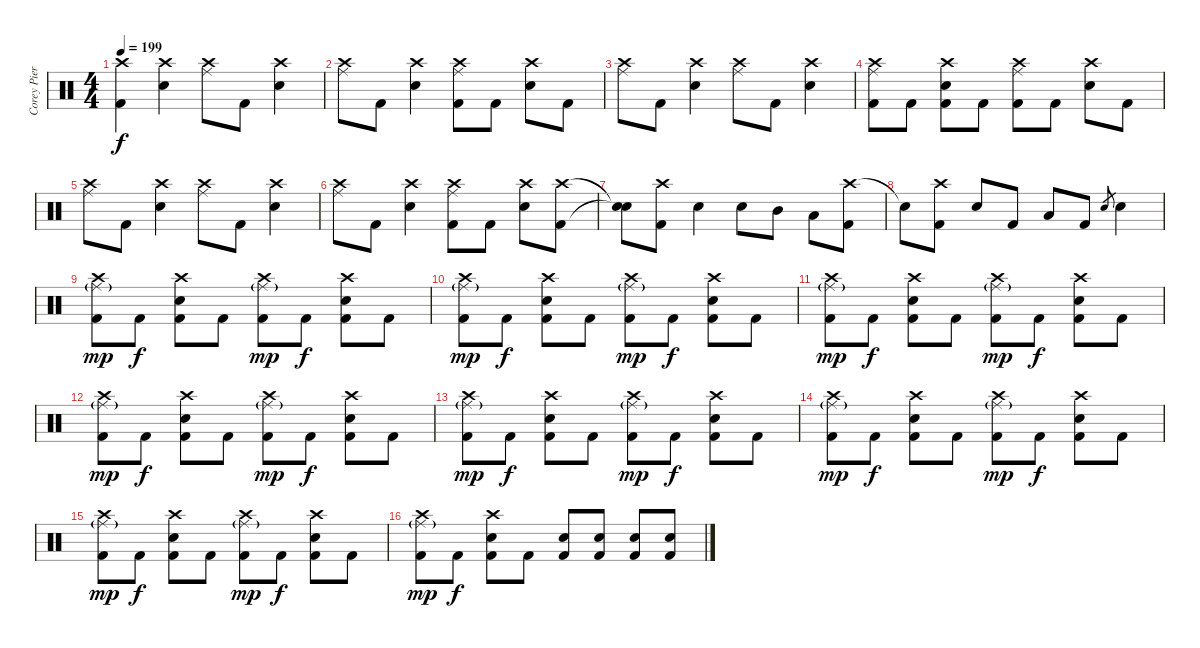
\track ("Corey Pierce (Drums)" "Corey Pier") {instrument percussion}
\staff {score}
\articulation defaults
\ts (4 4)
\tempo 199
\clef neutral
\ks c
("Crash high (hit)" "Kick (hit) 2").4{dy f} ("Crash high (hit)" "Snare (hit) 2").4 ("Ride (middle)" "Crash high (hit)").8 "Kick (hit) 2".8 ("Crash high (hit)" "Snare (hit) 2").4 |
("Ride (middle)" "Crash high (hit)").8 "Kick (hit) 2".8 ("Crash high (hit)" "Snare (hit) 2").4 ("Ride (middle)" "Crash high (hit)" "Kick (hit) 2").8 "Kick (hit) 2".8 ("Crash high (hit)" "Snare (hit) 2").8 "Kick (hit) 2".8 |
("Ride (middle)" "Crash high (hit)").8 "Kick (hit) 2".8 ("Crash high (hit)" "Snare (hit) 2").4 ("Ride (middle)" "Crash high (hit)").8 "Kick (hit) 2".8 ("Crash high (hit)" "Snare (hit) 2").4 |
("Ride (middle)" "Crash high (hit)" "Kick (hit) 2").8 "Kick (hit) 2".8 ("Crash high (hit)" "Snare (hit) 2" "Kick (hit) 2").8 "Kick (hit) 2".8 ("Ride (middle)" "Crash high (hit)" "Kick (hit) 2").8 "Kick (hit) 2".8 ("Crash high (hit)" "Snare (hit) 2").8 "Kick (hit) 2".8 |
("Ride (middle)" "Crash high (hit)").8 "Kick (hit) 2".8 ("Crash high (hit)" "Snare (hit) 2").4 ("Ride (middle)" "Crash high (hit)").8 "Kick (hit) 2".8 ("Crash high (hit)" "Snare (hit) 2").4 |
("Ride (middle)" "Crash high (hit)").8 "Kick (hit) 2".8 ("Crash high (hit)" "Snare (hit) 2").4 ("Ride (middle)" "Crash high (hit)" "Kick (hit) 2").8 "Kick (hit) 2".8 ("Crash high (hit)" "Snare (hit) 2").8 ("Crash high (hit)" "Kick (hit) 2").8 |
("Snare (hit)"{t} "Snare (hit)"{t}).8 ("Crash high (hit)" "Kick (hit) 2").8 "Snare (hit) 2".4 "Snare (hit) 2".8 "Mid Tom (hit)".8 "Low Tom (hit)".8 ("Crash high (hit)" "Kick (hit) 2").8 |
"Snare (hit)"{t}.8 ("Crash high (hit)" "Kick (hit) 2").8 "Snare (hit) 2".8 "Kick (hit) 2".8 "Low Tom (hit)".8 "Kick (hit) 2".8 "Snare (hit) 2".8{gr} "Snare (hit) 2".4 |
("Ride (middle)"{g} "Crash high (hit)" "Kick (hit) 2").8{dy mp} "Kick (hit) 2".8{dy f} ("Snare (hit) 2" "Crash high (hit)" "Kick (hit) 2").8 "Kick (hit) 2".8 ("Ride (middle)"{g} "Crash high (hit)" "Kick (hit) 2").8{dy mp} "Kick (hit) 2".8{dy f} ("Snare (hit) 2" "Crash high (hit)" "Kick (hit) 2").8 "Kick (hit) 2".8 |
("Ride (middle)"{g} "Crash high (hit)" "Kick (hit) 2").8{dy mp} "Kick (hit) 2".8{dy f} ("Snare (hit) 2" "Crash high (hit)" "Kick (hit) 2").8 "Kick (hit) 2".8 ("Ride (middle)"{g} "Crash high (hit)" "Kick (hit) 2").8{dy mp} "Kick (hit) 2".8{dy f} ("Snare (hit) 2" "Crash high (hit)" "Kick (hit) 2").8 "Kick (hit) 2".8 |
("Ride (middle)"{g} "Crash high (hit)" "Kick (hit) 2").8{dy mp} "Kick (hit) 2".8{dy f} ("Snare (hit) 2" "Crash high (hit)" "Kick (hit) 2").8 "Kick (hit) 2".8 ("Ride (middle)"{g} "Crash high (hit)" "Kick (hit) 2").8{dy mp} "Kick (hit) 2".8{dy f} ("Snare (hit) 2" "Crash high (hit)" "Kick (hit) 2").8 "Kick (hit) 2".8 |
("Ride (middle)"{g} "Crash high (hit)" "Kick (hit) 2").8{dy mp} "Kick (hit) 2".8{dy f} ("Snare (hit) 2" "Crash high (hit)" "Kick (hit) 2").8 "Kick (hit) 2".8 ("Ride (middle)"{g} "Crash high (hit)" "Kick (hit) 2").8{dy mp} "Kick (hit) 2".8{dy f} ("Snare (hit) 2" "Crash high (hit)" "Kick (hit) 2").8 "Kick (hit) 2".8 |
("Ride (middle)"{g} "Crash high (hit)" "Kick (hit) 2").8{dy mp} "Kick (hit) 2".8{dy f} ("Snare (hit) 2" "Crash high (hit)" "Kick (hit) 2").8 "Kick (hit) 2".8 ("Ride (middle)"{g} "Crash high (hit)" "Kick (hit) 2").8{dy mp} "Kick (hit) 2".8{dy f} ("Snare (hit) 2" "Crash high (hit)" "Kick (hit) 2").8 "Kick (hit) 2".8 |
("Ride (middle)"{g} "Crash high (hit)" "Kick (hit) 2").8{dy mp} "Kick (hit) 2".8{dy f} ("Snare (hit) 2" "Crash high (hit)" "Kick (hit) 2").8 "Kick (hit) 2".8 ("Ride (middle)"{g} "Crash high (hit)" "Kick (hit) 2").8{dy mp} "Kick (hit) 2".8{dy f} ("Snare (hit) 2" "Crash high (hit)" "Kick (hit) 2").8 "Kick (hit) 2".8 |
("Ride (middle)"{g} "Crash high (hit)" "Kick (hit) 2").8{dy mp} "Kick (hit) 2".8{dy f} ("Snare (hit) 2" "Crash high (hit)" "Kick (hit) 2").8 "Kick (hit) 2".8 ("Ride (middle)"{g} "Crash high (hit)" "Kick (hit) 2").8{dy mp} "Kick (hit) 2".8{dy f} ("Snare (hit) 2" "Crash high (hit)" "Kick (hit) 2").8 "Kick (hit) 2".8 |
("Ride (middle)"{g} "Crash high (hit)" "Kick (hit) 2").8{dy mp} "Kick (hit) 2".8{dy f} ("Snare (hit) 2" "Crash high (hit)" "Kick (hit) 2").8 "Kick (hit) 2".8 ("Snare (hit) 2" "Kick (hit) 2").8 ("Snare (hit) 2" "Kick (hit) 2").8 ("Snare (hit) 2" "Kick (hit) 2").8 ("Snare (hit) 2" "Kick (hit) 2").8
